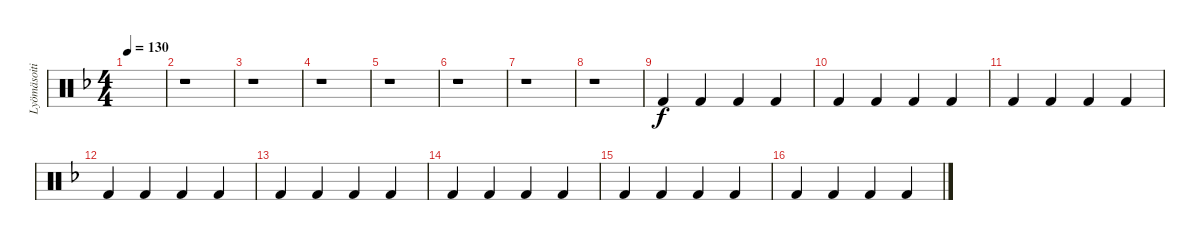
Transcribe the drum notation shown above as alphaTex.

\track ("Lyömäsoitin" "Lyömäsoiti") {instrument percussion}
\staff {score}
\articulation defaults
\ts (4 4)
\tempo 130
\clef neutral
\ks f
|
r.1 |
r.1 |
r.1 |
r.1 |
r.1 |
r.1 |
r.1 |
"Kick (hit) 2".4 "Kick (hit) 2".4 "Kick (hit) 2".4 "Kick (hit) 2".4 |
"Kick (hit) 2".4 "Kick (hit) 2".4 "Kick (hit) 2".4 "Kick (hit) 2".4 |
"Kick (hit) 2".4 "Kick (hit) 2".4 "Kick (hit) 2".4 "Kick (hit) 2".4 |
"Kick (hit) 2".4 "Kick (hit) 2".4 "Kick (hit) 2".4 "Kick (hit) 2".4 |
"Kick (hit) 2".4 "Kick (hit) 2".4 "Kick (hit) 2".4 "Kick (hit) 2".4 |
"Kick (hit) 2".4 "Kick (hit) 2".4 "Kick (hit) 2".4 "Kick (hit) 2".4 |
"Kick (hit) 2".4 "Kick (hit) 2".4 "Kick (hit) 2".4 "Kick (hit) 2".4 |
"Kick (hit) 2".4 "Kick (hit) 2".4 "Kick (hit) 2".4 "Kick (hit) 2".4
